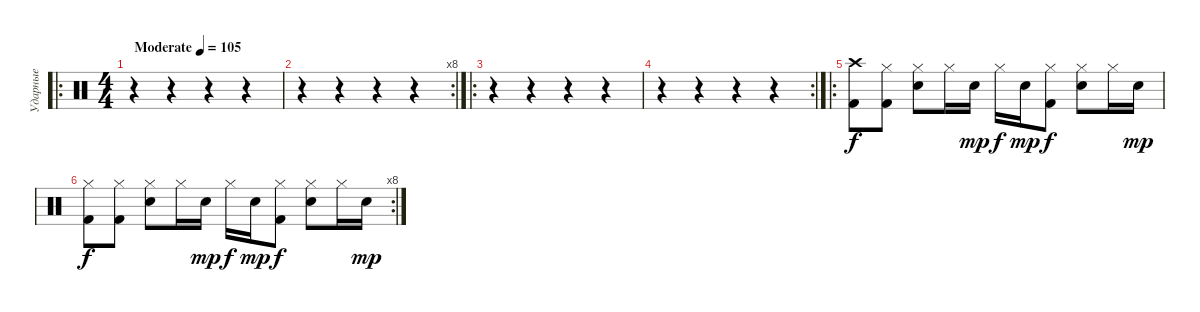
\track ("Ударные" "Ударные") {instrument percussion}
\staff {score}
\articulation defaults
\ro
\ts (4 4)
\tempo (105 "Moderate")
\clef neutral
\ks c
r.4{dy f} r.4 r.4 r.4 |
\rc 8
r.4 r.4 r.4 r.4 |
\ro
r.4 r.4 r.4 r.4 |
\rc 2
r.4 r.4 r.4 r.4 |
\ro
("Crash high (hit)" "Kick (hit) 2").8 ("Hi-Hat (closed)" "Kick (hit) 2").8 ("Hi-Hat (closed)" "Snare (hit) 2").8 "Hi-Hat (closed)".16 "Snare (hit) 2".16{dy mp} "Hi-Hat (closed)".16{dy f} "Snare (hit) 2".16{dy mp} ("Hi-Hat (closed)" "Kick (hit) 2").8{dy f} ("Hi-Hat (closed)" "Snare (hit) 2").8 "Hi-Hat (closed)".16 "Snare (hit) 2".16{dy mp} |
\rc 8
("Hi-Hat (closed)" "Kick (hit) 2").8{dy f} ("Hi-Hat (closed)" "Kick (hit) 2").8 ("Hi-Hat (closed)" "Snare (hit) 2").8 "Hi-Hat (closed)".16 "Snare (hit) 2".16{dy mp} "Hi-Hat (closed)".16{dy f} "Snare (hit) 2".16{dy mp} ("Hi-Hat (closed)" "Kick (hit) 2").8{dy f} ("Hi-Hat (closed)" "Snare (hit) 2").8 "Hi-Hat (closed)".16 "Snare (hit) 2".16{dy mp}
